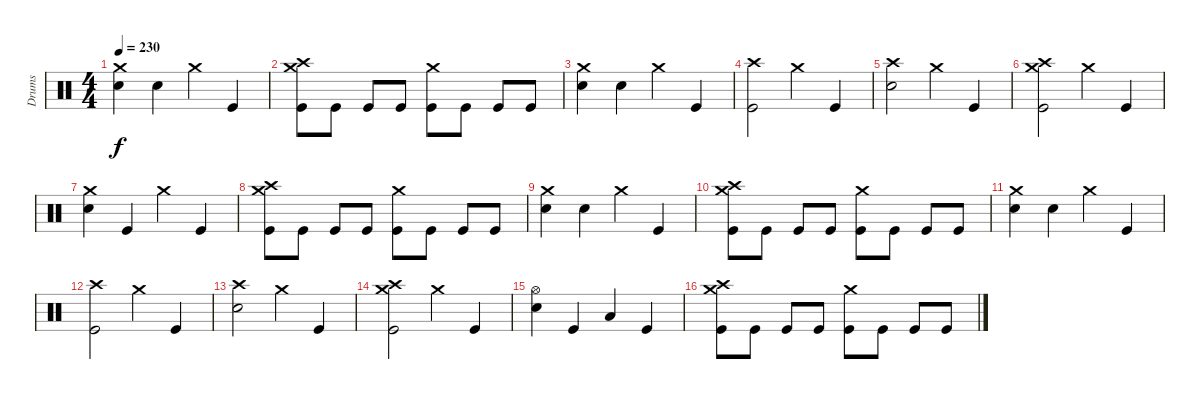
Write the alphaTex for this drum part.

\track ("Drums" "Drums") {instrument percussion}
\staff {score}
\articulation defaults
\ts (4 4)
\tempo 230
\clef neutral
\ks c
("Crash medium (hit)" "Electric Snare (hit)").4{dy f} "Electric Snare (hit)".4 "Crash medium (hit)".4 "Kick (hit)".4 |
("Crash high (hit)" "Crash medium (hit)" "Kick (hit)").8 "Kick (hit)".8 "Kick (hit)".8 "Kick (hit)".8 ("Crash medium (hit)" "Kick (hit)").8 "Kick (hit)".8 "Kick (hit)".8 "Kick (hit)".8 |
("Crash medium (hit)" "Electric Snare (hit)").4 "Electric Snare (hit)".4 "Crash medium (hit)".4 "Kick (hit)".4 |
("Crash high (hit)" "Kick (hit)").2 "Crash medium (hit)".4 "Kick (hit)".4 |
("Crash high (hit)" "Electric Snare (hit)").2 "Crash medium (hit)".4 "Kick (hit)".4 |
("Crash high (hit)" "Crash medium (hit)" "Kick (hit)").2 "Crash medium (hit)".4 "Kick (hit)".4 |
("Crash medium (hit)" "Electric Snare (hit)").4 "Kick (hit)".4 "Crash medium (hit)".4 "Kick (hit)".4 |
("Crash high (hit)" "Crash medium (hit)" "Kick (hit)").8 "Kick (hit)".8 "Kick (hit)".8 "Kick (hit)".8 ("Crash medium (hit)" "Kick (hit)").8 "Kick (hit)".8 "Kick (hit)".8 "Kick (hit)".8 |
("Crash medium (hit)" "Electric Snare (hit)").4 "Electric Snare (hit)".4 "Crash medium (hit)".4 "Kick (hit)".4 |
("Crash high (hit)" "Crash medium (hit)" "Kick (hit)").8 "Kick (hit)".8 "Kick (hit)".8 "Kick (hit)".8 ("Crash medium (hit)" "Kick (hit)").8 "Kick (hit)".8 "Kick (hit)".8 "Kick (hit)".8 |
("Crash medium (hit)" "Electric Snare (hit)").4 "Electric Snare (hit)".4 "Crash medium (hit)".4 "Kick (hit)".4 |
("Crash high (hit)" "Kick (hit)").2 "Crash medium (hit)".4 "Kick (hit)".4 |
("Crash high (hit)" "Electric Snare (hit)").2 "Crash medium (hit)".4 "Kick (hit)".4 |
("Crash high (hit)" "Crash medium (hit)" "Kick (hit)").2 "Crash medium (hit)".4 "Kick (hit)".4 |
("Hi-Hat (open)" "Electric Snare (hit)").4 "Kick (hit)".4 "Low Floor Tom (hit)".4 "Kick (hit)".4 |
("Crash high (hit)" "Crash medium (hit)" "Kick (hit)").8 "Kick (hit)".8 "Kick (hit)".8 "Kick (hit)".8 ("Crash medium (hit)" "Kick (hit)").8 "Kick (hit)".8 "Kick (hit)".8 "Kick (hit)".8
